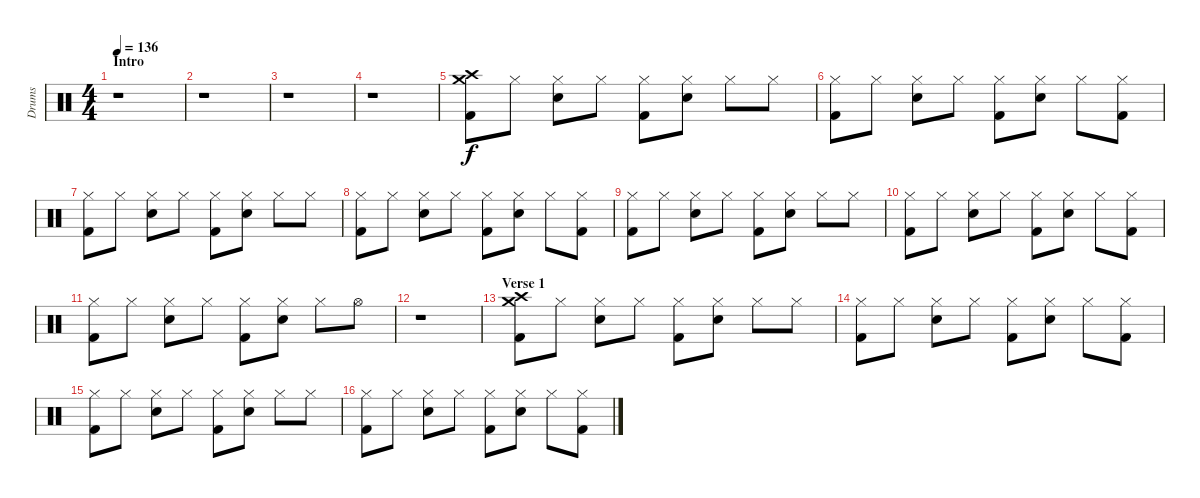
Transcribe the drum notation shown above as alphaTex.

\track ("Drums" "Drums") {instrument percussion}
\staff {score}
\articulation defaults
\ts (4 4)
\section ("" "Intro")
\tempo 136
\clef neutral
\ks c
r.1{dy f} |
r.1 |
r.1 |
r.1 |
("Crash medium (hit)" "Crash high (hit)" "Kick (hit) 2").8 "Hi-Hat (closed)".8 ("Hi-Hat (closed)" "Electric Snare (hit)").8 "Hi-Hat (closed)".8 ("Hi-Hat (closed)" "Kick (hit) 2").8 ("Hi-Hat (closed)" "Electric Snare (hit)").8 "Hi-Hat (closed)".8 "Hi-Hat (closed)".8 |
("Hi-Hat (closed)" "Kick (hit) 2").8 "Hi-Hat (closed)".8 ("Hi-Hat (closed)" "Electric Snare (hit)").8 "Hi-Hat (closed)".8 ("Hi-Hat (closed)" "Kick (hit) 2").8 ("Hi-Hat (closed)" "Electric Snare (hit)").8 "Hi-Hat (closed)".8 ("Hi-Hat (closed)" "Kick (hit) 2").8 |
("Hi-Hat (closed)" "Kick (hit) 2").8 "Hi-Hat (closed)".8 ("Hi-Hat (closed)" "Electric Snare (hit)").8 "Hi-Hat (closed)".8 ("Hi-Hat (closed)" "Kick (hit) 2").8 ("Hi-Hat (closed)" "Electric Snare (hit)").8 "Hi-Hat (closed)".8 "Hi-Hat (closed)".8 |
("Hi-Hat (closed)" "Kick (hit) 2").8 "Hi-Hat (closed)".8 ("Hi-Hat (closed)" "Electric Snare (hit)").8 "Hi-Hat (closed)".8 ("Hi-Hat (closed)" "Kick (hit) 2").8 ("Hi-Hat (closed)" "Electric Snare (hit)").8 "Hi-Hat (closed)".8 ("Hi-Hat (closed)" "Kick (hit) 2").8 |
("Hi-Hat (closed)" "Kick (hit) 2").8 "Hi-Hat (closed)".8 ("Hi-Hat (closed)" "Electric Snare (hit)").8 "Hi-Hat (closed)".8 ("Hi-Hat (closed)" "Kick (hit) 2").8 ("Hi-Hat (closed)" "Electric Snare (hit)").8 "Hi-Hat (closed)".8 "Hi-Hat (closed)".8 |
("Hi-Hat (closed)" "Kick (hit) 2").8 "Hi-Hat (closed)".8 ("Hi-Hat (closed)" "Electric Snare (hit)").8 "Hi-Hat (closed)".8 ("Hi-Hat (closed)" "Kick (hit) 2").8 ("Hi-Hat (closed)" "Electric Snare (hit)").8 "Hi-Hat (closed)".8 ("Hi-Hat (closed)" "Kick (hit) 2").8 |
("Hi-Hat (closed)" "Kick (hit) 2").8 "Hi-Hat (closed)".8 ("Hi-Hat (closed)" "Electric Snare (hit)").8 "Hi-Hat (closed)".8 ("Hi-Hat (closed)" "Kick (hit) 2").8 ("Hi-Hat (closed)" "Electric Snare (hit)").8 "Hi-Hat (closed)".8 "Hi-Hat (open)".8 |
r.1 |
\section ("" "Verse 1")
("Crash medium (hit)" "Crash high (hit)" "Kick (hit) 2").8 "Hi-Hat (closed)".8 ("Hi-Hat (closed)" "Electric Snare (hit)").8 "Hi-Hat (closed)".8 ("Hi-Hat (closed)" "Kick (hit) 2").8 ("Hi-Hat (closed)" "Electric Snare (hit)").8 "Hi-Hat (closed)".8 "Hi-Hat (closed)".8 |
("Hi-Hat (closed)" "Kick (hit) 2").8 "Hi-Hat (closed)".8 ("Hi-Hat (closed)" "Electric Snare (hit)").8 "Hi-Hat (closed)".8 ("Hi-Hat (closed)" "Kick (hit) 2").8 ("Hi-Hat (closed)" "Electric Snare (hit)").8 "Hi-Hat (closed)".8 ("Hi-Hat (closed)" "Kick (hit) 2").8 |
("Hi-Hat (closed)" "Kick (hit) 2").8 "Hi-Hat (closed)".8 ("Hi-Hat (closed)" "Electric Snare (hit)").8 "Hi-Hat (closed)".8 ("Hi-Hat (closed)" "Kick (hit) 2").8 ("Hi-Hat (closed)" "Electric Snare (hit)").8 "Hi-Hat (closed)".8 "Hi-Hat (closed)".8 |
("Hi-Hat (closed)" "Kick (hit) 2").8 "Hi-Hat (closed)".8 ("Hi-Hat (closed)" "Electric Snare (hit)").8 "Hi-Hat (closed)".8 ("Hi-Hat (closed)" "Kick (hit) 2").8 ("Hi-Hat (closed)" "Electric Snare (hit)").8 "Hi-Hat (closed)".8 ("Hi-Hat (closed)" "Kick (hit) 2").8
